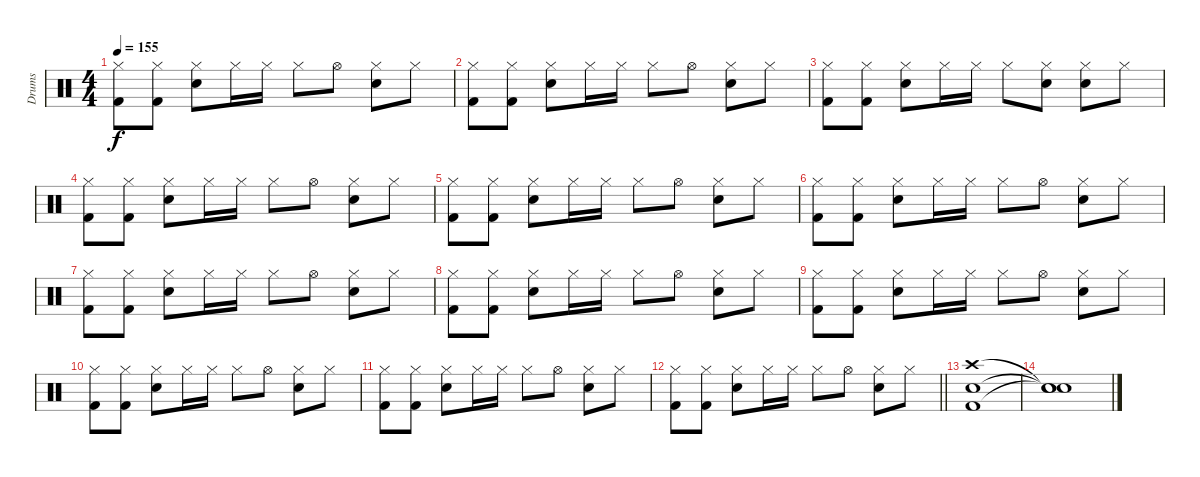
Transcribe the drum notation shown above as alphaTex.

\track ("Drums" "Drums") {instrument percussion}
\staff {score}
\articulation defaults
\ts (4 4)
\tempo 155
\clef neutral
\ks c
("Hi-Hat (closed)" "Kick (hit) 2").8{dy f} ("Hi-Hat (closed)" "Kick (hit) 2").8 ("Hi-Hat (closed)" "Electric Snare (hit)").8 "Hi-Hat (closed)".16 "Hi-Hat (closed)".16 "Hi-Hat (closed)".8 "Hi-Hat (open)".8 ("Hi-Hat (closed)" "Electric Snare (hit)").8 "Hi-Hat (closed)".8 |
("Hi-Hat (closed)" "Kick (hit) 2").8 ("Hi-Hat (closed)" "Kick (hit) 2").8 ("Hi-Hat (closed)" "Electric Snare (hit)").8 "Hi-Hat (closed)".16 "Hi-Hat (closed)".16 "Hi-Hat (closed)".8 "Hi-Hat (open)".8 ("Hi-Hat (closed)" "Electric Snare (hit)").8 "Hi-Hat (closed)".8 |
("Hi-Hat (closed)" "Kick (hit) 2").8 ("Hi-Hat (closed)" "Kick (hit) 2").8 ("Hi-Hat (closed)" "Electric Snare (hit)").8 "Hi-Hat (closed)".16 "Hi-Hat (closed)".16 "Hi-Hat (closed)".8 ("Hi-Hat (closed)" "Electric Snare (hit)").8 ("Hi-Hat (closed)" "Electric Snare (hit)").8 "Hi-Hat (closed)".8 |
("Hi-Hat (closed)" "Kick (hit) 2").8 ("Hi-Hat (closed)" "Kick (hit) 2").8 ("Hi-Hat (closed)" "Electric Snare (hit)").8 "Hi-Hat (closed)".16 "Hi-Hat (closed)".16 "Hi-Hat (closed)".8 "Hi-Hat (open)".8 ("Hi-Hat (closed)" "Electric Snare (hit)").8 "Hi-Hat (closed)".8 |
("Hi-Hat (closed)" "Kick (hit) 2").8 ("Hi-Hat (closed)" "Kick (hit) 2").8 ("Hi-Hat (closed)" "Electric Snare (hit)").8 "Hi-Hat (closed)".16 "Hi-Hat (closed)".16 "Hi-Hat (closed)".8 "Hi-Hat (open)".8 ("Hi-Hat (closed)" "Electric Snare (hit)").8 "Hi-Hat (closed)".8 |
("Hi-Hat (closed)" "Kick (hit) 2").8 ("Hi-Hat (closed)" "Kick (hit) 2").8 ("Hi-Hat (closed)" "Electric Snare (hit)").8 "Hi-Hat (closed)".16 "Hi-Hat (closed)".16 "Hi-Hat (closed)".8 "Hi-Hat (open)".8 ("Hi-Hat (closed)" "Electric Snare (hit)").8 "Hi-Hat (closed)".8 |
("Hi-Hat (closed)" "Kick (hit) 2").8 ("Hi-Hat (closed)" "Kick (hit) 2").8 ("Hi-Hat (closed)" "Electric Snare (hit)").8 "Hi-Hat (closed)".16 "Hi-Hat (closed)".16 "Hi-Hat (closed)".8 "Hi-Hat (open)".8 ("Hi-Hat (closed)" "Electric Snare (hit)").8 "Hi-Hat (closed)".8 |
("Hi-Hat (closed)" "Kick (hit) 2").8 ("Hi-Hat (closed)" "Kick (hit) 2").8 ("Hi-Hat (closed)" "Electric Snare (hit)").8 "Hi-Hat (closed)".16 "Hi-Hat (closed)".16 "Hi-Hat (closed)".8 "Hi-Hat (open)".8 ("Hi-Hat (closed)" "Electric Snare (hit)").8 "Hi-Hat (closed)".8 |
("Hi-Hat (closed)" "Kick (hit) 2").8 ("Hi-Hat (closed)" "Kick (hit) 2").8 ("Hi-Hat (closed)" "Electric Snare (hit)").8 "Hi-Hat (closed)".16 "Hi-Hat (closed)".16 "Hi-Hat (closed)".8 "Hi-Hat (open)".8 ("Hi-Hat (closed)" "Electric Snare (hit)").8 "Hi-Hat (closed)".8 |
("Hi-Hat (closed)" "Kick (hit) 2").8 ("Hi-Hat (closed)" "Kick (hit) 2").8 ("Hi-Hat (closed)" "Electric Snare (hit)").8 "Hi-Hat (closed)".16 "Hi-Hat (closed)".16 "Hi-Hat (closed)".8 "Hi-Hat (open)".8 ("Hi-Hat (closed)" "Electric Snare (hit)").8 "Hi-Hat (closed)".8 |
("Hi-Hat (closed)" "Kick (hit) 2").8 ("Hi-Hat (closed)" "Kick (hit) 2").8 ("Hi-Hat (closed)" "Electric Snare (hit)").8 "Hi-Hat (closed)".16 "Hi-Hat (closed)".16 "Hi-Hat (closed)".8 "Hi-Hat (open)".8 ("Hi-Hat (closed)" "Electric Snare (hit)").8 "Hi-Hat (closed)".8 |
\barLineRight lightlight
("Hi-Hat (closed)" "Kick (hit) 2").8 ("Hi-Hat (closed)" "Kick (hit) 2").8 ("Hi-Hat (closed)" "Electric Snare (hit)").8 "Hi-Hat (closed)".16 "Hi-Hat (closed)".16 "Hi-Hat (closed)".8 "Hi-Hat (open)".8 ("Hi-Hat (closed)" "Electric Snare (hit)").8 "Hi-Hat (closed)".8 |
("Crash high (hit)" "Electric Snare (hit)" "Kick (hit) 2").1 |
("Snare (hit)"{t} "Snare (hit)"{t} "Snare (hit)"{t}).1
